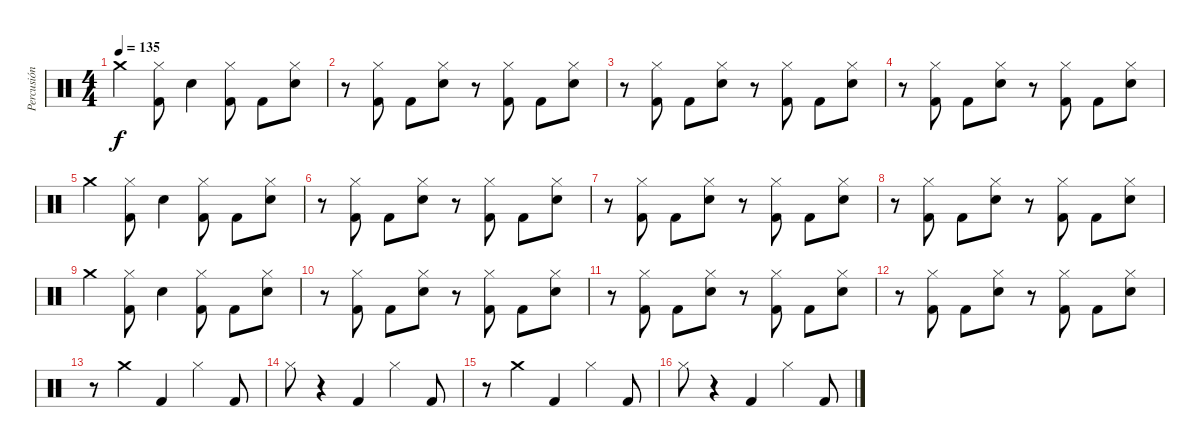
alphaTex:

\track ("Percusión" "Percusión") {instrument percussion}
\staff {score}
\articulation defaults
\ts (4 4)
\tempo 135
\clef neutral
\ks c "Crash medium (hit)".4{dy f}
("Hi-Hat (closed)" "Kick (hit) 2").8 "Snare (hit) 2".4 ("Hi-Hat (closed)" "Kick (hit) 2").8 "Kick (hit) 2".8 ("Snare (hit) 2" "Hi-Hat (closed)").8 |
r.8 ("Hi-Hat (closed)" "Kick (hit) 2").8 "Kick (hit) 2".8 ("Snare (hit) 2" "Hi-Hat (closed)").8 r.8 ("Hi-Hat (closed)" "Kick (hit) 2").8 "Kick (hit) 2".8 ("Snare (hit) 2" "Hi-Hat (closed)").8 |
r.8 ("Hi-Hat (closed)" "Kick (hit) 2").8 "Kick (hit) 2".8 ("Snare (hit) 2" "Hi-Hat (closed)").8 r.8 ("Hi-Hat (closed)" "Kick (hit) 2").8 "Kick (hit) 2".8 ("Snare (hit) 2" "Hi-Hat (closed)").8 |
r.8 ("Hi-Hat (closed)" "Kick (hit) 2").8 "Kick (hit) 2".8 ("Snare (hit) 2" "Hi-Hat (closed)").8 r.8 ("Hi-Hat (closed)" "Kick (hit) 2").8 "Kick (hit) 2".8 ("Snare (hit) 2" "Hi-Hat (closed)").8 |
"Crash medium (hit)".4 ("Hi-Hat (closed)" "Kick (hit) 2").8 "Snare (hit) 2".4 ("Hi-Hat (closed)" "Kick (hit) 2").8 "Kick (hit) 2".8 ("Snare (hit) 2" "Hi-Hat (closed)").8 |
r.8 ("Hi-Hat (closed)" "Kick (hit) 2").8 "Kick (hit) 2".8 ("Snare (hit) 2" "Hi-Hat (closed)").8 r.8 ("Hi-Hat (closed)" "Kick (hit) 2").8 "Kick (hit) 2".8 ("Snare (hit) 2" "Hi-Hat (closed)").8 |
r.8 ("Hi-Hat (closed)" "Kick (hit) 2").8 "Kick (hit) 2".8 ("Snare (hit) 2" "Hi-Hat (closed)").8 r.8 ("Hi-Hat (closed)" "Kick (hit) 2").8 "Kick (hit) 2".8 ("Snare (hit) 2" "Hi-Hat (closed)").8 |
r.8 ("Hi-Hat (closed)" "Kick (hit) 2").8 "Kick (hit) 2".8 ("Snare (hit) 2" "Hi-Hat (closed)").8 r.8 ("Hi-Hat (closed)" "Kick (hit) 2").8 "Kick (hit) 2".8 ("Snare (hit) 2" "Hi-Hat (closed)").8 |
"Crash medium (hit)".4 ("Hi-Hat (closed)" "Kick (hit) 2").8 "Snare (hit) 2".4 ("Hi-Hat (closed)" "Kick (hit) 2").8 "Kick (hit) 2".8 ("Snare (hit) 2" "Hi-Hat (closed)").8 |
r.8 ("Hi-Hat (closed)" "Kick (hit) 2").8 "Kick (hit) 2".8 ("Snare (hit) 2" "Hi-Hat (closed)").8 r.8 ("Hi-Hat (closed)" "Kick (hit) 2").8 "Kick (hit) 2".8 ("Snare (hit) 2" "Hi-Hat (closed)").8 |
r.8 ("Hi-Hat (closed)" "Kick (hit) 2").8 "Kick (hit) 2".8 ("Snare (hit) 2" "Hi-Hat (closed)").8 r.8 ("Hi-Hat (closed)" "Kick (hit) 2").8 "Kick (hit) 2".8 ("Snare (hit) 2" "Hi-Hat (closed)").8 |
r.8 ("Hi-Hat (closed)" "Kick (hit) 2").8 "Kick (hit) 2".8 ("Snare (hit) 2" "Hi-Hat (closed)").8 r.8 ("Hi-Hat (closed)" "Kick (hit) 2").8 "Kick (hit) 2".8 ("Snare (hit) 2" "Hi-Hat (closed)").8 |
r.8 "Crash medium (hit)".4 "Kick (hit) 2".4 "Hi-Hat (closed)".4 "Kick (hit) 2".8 |
"Hi-Hat (closed)".8 r.4 "Kick (hit) 2".4 "Hi-Hat (closed)".4 "Kick (hit) 2".8 |
r.8 "Crash medium (hit)".4 "Kick (hit) 2".4 "Hi-Hat (closed)".4 "Kick (hit) 2".8 |
"Hi-Hat (closed)".8 r.4 "Kick (hit) 2".4 "Hi-Hat (closed)".4 "Kick (hit) 2".8
